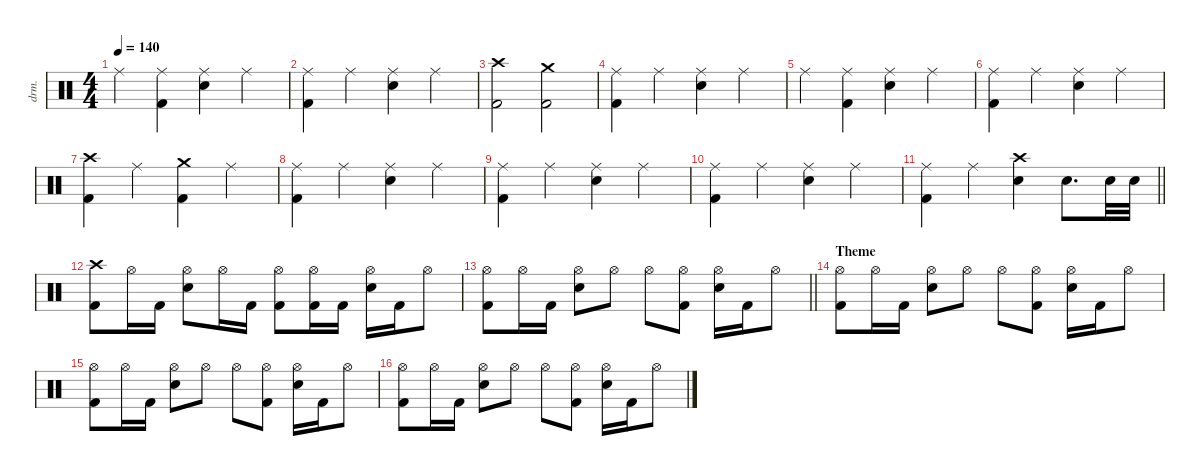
\defaultSystemsLayout 4
\hideDynamics
\bracketExtendMode nobrackets
\otherSystemsTrackNameOrientation horizontal
\track ("Drums" "drm.") {defaultSystemsLayout 4 instrument percussion}
\staff {score}
\articulation defaults
\ts (4 4)
\tempo 140
\clef neutral
\ks c "Ride (middle)".4{dy f beam Down}
("Ride (middle)" "Kick (hit) 2").4{beam Down} ("Ride (middle)" "Snare (hit) 2").4{beam Down} "Ride (middle)".4{beam Down} |
("Ride (middle)" "Kick (hit) 2").4{beam Down} "Ride (middle)".4{beam Down} ("Ride (middle)" "Snare (hit) 2").4{beam Down} "Ride (middle)".4{beam Down} |
("Crash high (hit)" "Kick (hit) 2").2{beam Down} ("Crash medium (hit)" "Kick (hit) 2").2{beam Down} |
("Ride (middle)" "Kick (hit) 2").4{beam Down} "Ride (middle)".4{beam Down} ("Ride (middle)" "Snare (hit) 2").4{beam Down} "Ride (middle)".4{beam Down} |
"Ride (middle)".4{beam Down} ("Ride (middle)" "Kick (hit) 2").4{beam Down} ("Ride (middle)" "Snare (hit) 2").4{beam Down} "Ride (middle)".4{beam Down} |
("Ride (middle)" "Kick (hit) 2").4{beam Down} "Ride (middle)".4{beam Down} ("Ride (middle)" "Snare (hit) 2").4{beam Down} "Ride (middle)".4{beam Down} |
("Crash high (hit)" "Kick (hit) 2").4{beam Down} "Ride (middle)".4{beam Down} ("Crash medium (hit)" "Kick (hit) 2").4{beam Down} "Ride (middle)".4{beam Down} |
("Ride (middle)" "Kick (hit) 2").4{beam Down} "Ride (middle)".4{beam Down} ("Ride (middle)" "Snare (hit) 2").4{beam Down} "Ride (middle)".4{beam Down} |
("Ride (middle)" "Kick (hit) 2").4{beam Down} "Ride (middle)".4{beam Down} ("Ride (middle)" "Snare (hit) 2").4{beam Down} "Ride (middle)".4{beam Down} |
("Ride (middle)" "Kick (hit) 2").4{beam Down} "Ride (middle)".4{beam Down} ("Ride (middle)" "Snare (hit) 2").4{beam Down} "Ride (middle)".4{beam Down} |
\barLineRight lightlight
("Ride (middle)" "Kick (hit) 2").4{beam Down} "Ride (middle)".4{beam Down} ("Crash high (hit)" "Snare (hit) 2").4{beam Down} "Snare (hit) 2".8{d beam Down} "Snare (hit) 2".32{beam Down} "Snare (hit) 2".32{beam Down} |
("Crash high (hit)" "Kick (hit) 2").8{beam Down} "Hi-Hat (open)".16{dy mf beam Down} "Kick (hit) 2".16{dy f beam Down} ("Hi-Hat (open)" "Snare (hit) 2").8{dy mf beam Down} "Hi-Hat (open)".16{beam Down} "Kick (hit) 2".16{dy f beam Down} ("Hi-Hat (open)" "Kick (hit) 2").8{dy mf beam Down} ("Hi-Hat (open)" "Kick (hit) 2").16{beam Down} "Kick (hit) 2".16{dy f beam Down} ("Hi-Hat (open)" "Snare (hit) 2").16{dy mf beam Down} "Kick (hit) 2".16{dy f beam Down} "Hi-Hat (open)".8{dy mf beam Down} |
\barLineRight lightlight
("Hi-Hat (open)" "Kick (hit) 2").8{beam Down} "Hi-Hat (open)".16{beam Down} "Kick (hit) 2".16{dy f beam Down} ("Hi-Hat (open)" "Snare (hit) 2").8{dy mf beam Down} "Hi-Hat (open)".8{beam Down} "Hi-Hat (open)".8{beam Down} ("Hi-Hat (open)" "Kick (hit) 2").8{beam Down} ("Hi-Hat (open)" "Snare (hit) 2").16{beam Down} "Kick (hit) 2".16{dy f beam Down} "Hi-Hat (open)".8{dy mf beam Down} |
\section ("" "Theme")
("Hi-Hat (open)" "Kick (hit) 2").8{beam Down} "Hi-Hat (open)".16{beam Down} "Kick (hit) 2".16{dy f beam Down} ("Hi-Hat (open)" "Snare (hit) 2").8{dy mf beam Down} "Hi-Hat (open)".8{beam Down} "Hi-Hat (open)".8{beam Down} ("Hi-Hat (open)" "Kick (hit) 2").8{beam Down} ("Hi-Hat (open)" "Snare (hit) 2").16{beam Down} "Kick (hit) 2".16{dy f beam Down} "Hi-Hat (open)".8{dy mf beam Down} |
("Hi-Hat (open)" "Kick (hit) 2").8{beam Down} "Hi-Hat (open)".16{beam Down} "Kick (hit) 2".16{dy f beam Down} ("Hi-Hat (open)" "Snare (hit) 2").8{dy mf beam Down} "Hi-Hat (open)".8{beam Down} "Hi-Hat (open)".8{beam Down} ("Hi-Hat (open)" "Kick (hit) 2").8{beam Down} ("Hi-Hat (open)" "Snare (hit) 2").16{beam Down} "Kick (hit) 2".16{dy f beam Down} "Hi-Hat (open)".8{dy mf beam Down} |
("Hi-Hat (open)" "Kick (hit) 2").8{beam Down} "Hi-Hat (open)".16{beam Down} "Kick (hit) 2".16{dy f beam Down} ("Hi-Hat (open)" "Snare (hit) 2").8{dy mf beam Down} "Hi-Hat (open)".8{beam Down} "Hi-Hat (open)".8{beam Down} ("Hi-Hat (open)" "Kick (hit) 2").8{beam Down} ("Hi-Hat (open)" "Snare (hit) 2").16{beam Down} "Kick (hit) 2".16{dy f beam Down} "Hi-Hat (open)".8{dy mf beam Down}
